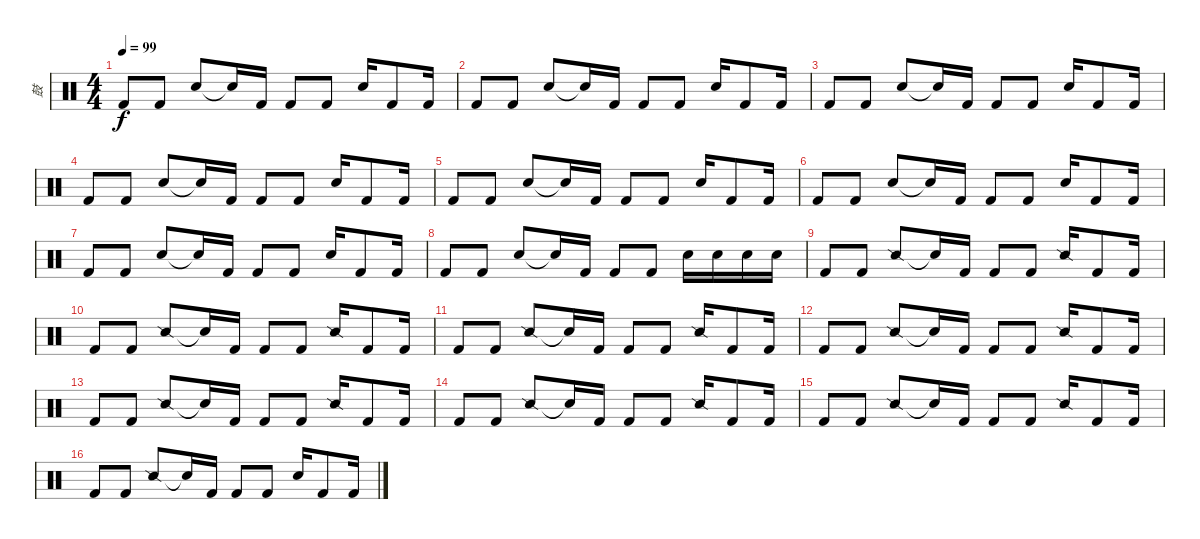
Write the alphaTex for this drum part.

\track ("鼓" "鼓") {instrument percussion}
\staff {score}
\articulation defaults
\ts (4 4)
\tempo 99
\clef neutral
\ks c "Kick (hit) 2".8{dy f} "Kick (hit) 2".8 "Snare (hit) 2".8 "Snare (hit)"{t}.16 "Kick (hit) 2".16 "Kick (hit) 2".8 "Kick (hit) 2".8 "Snare (hit) 2".16 "Kick (hit) 2".8 "Kick (hit) 2".16
|
"Kick (hit) 2".8 "Kick (hit) 2".8 "Snare (hit) 2".8 "Snare (hit)"{t}.16 "Kick (hit) 2".16 "Kick (hit) 2".8 "Kick (hit) 2".8 "Snare (hit) 2".16 "Kick (hit) 2".8 "Kick (hit) 2".16 |
"Kick (hit) 2".8 "Kick (hit) 2".8 "Snare (hit) 2".8 "Snare (hit)"{t}.16 "Kick (hit) 2".16 "Kick (hit) 2".8 "Kick (hit) 2".8 "Snare (hit) 2".16 "Kick (hit) 2".8 "Kick (hit) 2".16 |
"Kick (hit) 2".8 "Kick (hit) 2".8 "Snare (hit) 2".8 "Snare (hit)"{t}.16 "Kick (hit) 2".16 "Kick (hit) 2".8 "Kick (hit) 2".8 "Snare (hit) 2".16 "Kick (hit) 2".8 "Kick (hit) 2".16 |
"Kick (hit) 2".8 "Kick (hit) 2".8 "Snare (hit) 2".8 "Snare (hit)"{t}.16 "Kick (hit) 2".16 "Kick (hit) 2".8 "Kick (hit) 2".8 "Snare (hit) 2".16 "Kick (hit) 2".8 "Kick (hit) 2".16 |
"Kick (hit) 2".8 "Kick (hit) 2".8 "Snare (hit) 2".8 "Snare (hit)"{t}.16 "Kick (hit) 2".16 "Kick (hit) 2".8 "Kick (hit) 2".8 "Snare (hit) 2".16 "Kick (hit) 2".8 "Kick (hit) 2".16 |
"Kick (hit) 2".8 "Kick (hit) 2".8 "Snare (hit) 2".8 "Snare (hit)"{t}.16 "Kick (hit) 2".16 "Kick (hit) 2".8 "Kick (hit) 2".8 "Snare (hit) 2".16 "Kick (hit) 2".8 "Kick (hit) 2".16 |
"Kick (hit) 2".8 "Kick (hit) 2".8 "Snare (hit) 2".8 "Snare (hit)"{t}.16 "Kick (hit) 2".16 "Kick (hit) 2".8 "Kick (hit) 2".8 "Snare (hit) 2".16 "Snare (hit) 2".16 "Snare (hit) 2".16 "Snare (hit) 2".16 |
"Kick (hit) 2".8 "Kick (hit) 2".8 "Snare (side stick) 2".8 "Snare (hit)"{t}.16 "Kick (hit) 2".16 "Kick (hit) 2".8 "Kick (hit) 2".8 "Snare (side stick) 2".16 "Kick (hit) 2".8 "Kick (hit) 2".16 |
"Kick (hit) 2".8 "Kick (hit) 2".8 "Snare (side stick) 2".8 "Snare (hit)"{t}.16 "Kick (hit) 2".16 "Kick (hit) 2".8 "Kick (hit) 2".8 "Snare (side stick) 2".16 "Kick (hit) 2".8 "Kick (hit) 2".16 |
"Kick (hit) 2".8 "Kick (hit) 2".8 "Snare (side stick) 2".8 "Snare (hit)"{t}.16 "Kick (hit) 2".16 "Kick (hit) 2".8 "Kick (hit) 2".8 "Snare (side stick) 2".16 "Kick (hit) 2".8 "Kick (hit) 2".16 |
"Kick (hit) 2".8 "Kick (hit) 2".8 "Snare (side stick) 2".8 "Snare (hit)"{t}.16 "Kick (hit) 2".16 "Kick (hit) 2".8 "Kick (hit) 2".8 "Snare (side stick) 2".16 "Kick (hit) 2".8 "Kick (hit) 2".16 |
"Kick (hit) 2".8 "Kick (hit) 2".8 "Snare (side stick) 2".8 "Snare (hit)"{t}.16 "Kick (hit) 2".16 "Kick (hit) 2".8 "Kick (hit) 2".8 "Snare (side stick) 2".16 "Kick (hit) 2".8 "Kick (hit) 2".16 |
"Kick (hit) 2".8 "Kick (hit) 2".8 "Snare (side stick) 2".8 "Snare (hit)"{t}.16 "Kick (hit) 2".16 "Kick (hit) 2".8 "Kick (hit) 2".8 "Snare (side stick) 2".16 "Kick (hit) 2".8 "Kick (hit) 2".16 |
"Kick (hit) 2".8 "Kick (hit) 2".8 "Snare (side stick) 2".8 "Snare (hit)"{t}.16 "Kick (hit) 2".16 "Kick (hit) 2".8 "Kick (hit) 2".8 "Snare (side stick) 2".16 "Kick (hit) 2".8 "Kick (hit) 2".16 |
"Kick (hit) 2".8 "Kick (hit) 2".8 "Snare (side stick) 2".8 "Snare (hit)"{t}.16 "Kick (hit) 2".16 "Kick (hit) 2".8 "Kick (hit) 2".8 "Snare (hit) 2".16 "Kick (hit) 2".8 "Kick (hit) 2".16
